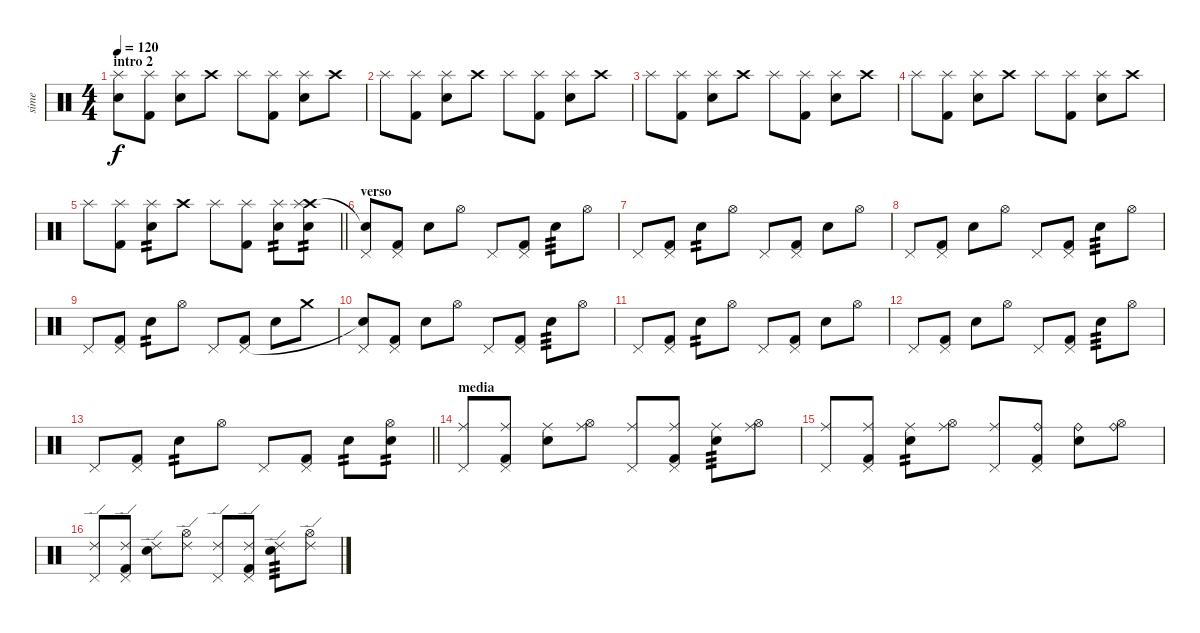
\track ("sime" "sime") {instrument percussion}
\staff {score}
\articulation defaults
\ts (4 4)
\section ("" "intro 2")
\tempo 120
\clef neutral
\ks c
("Splash (hit)" "Snare (hit)"{t}).8{dy f} ("Kick (hit) 2" "Splash (hit)").8 ("Snare (hit) 2" "Splash (hit)").8 "Crash high (hit)".8 "Splash (hit)".8 ("Kick (hit) 2" "Splash (hit)").8 ("Snare (hit) 2" "Splash (hit)").8 "Crash high (hit)".8 |
"Splash (hit)".8 ("Kick (hit) 2" "Splash (hit)").8 ("Snare (hit) 2" "Splash (hit)").8 "Crash high (hit)".8 "Splash (hit)".8 ("Kick (hit) 2" "Splash (hit)").8 ("Snare (hit) 2" "Splash (hit)").8 "Crash high (hit)".8 |
"Splash (hit)".8 ("Kick (hit) 2" "Splash (hit)").8 ("Snare (hit) 2" "Splash (hit)").8 "Crash high (hit)".8 "Splash (hit)".8 ("Kick (hit) 2" "Splash (hit)").8 ("Snare (hit) 2" "Splash (hit)").8 "Crash high (hit)".8 |
"Splash (hit)".8 ("Kick (hit) 2" "Splash (hit)").8 ("Snare (hit) 2" "Splash (hit)").8 "Crash high (hit)".8 "Splash (hit)".8 ("Kick (hit) 2" "Splash (hit)").8 ("Snare (hit) 2" "Splash (hit)").8 "Crash high (hit)".8 |
\barLineRight lightlight "Splash (hit)".8
("Kick (hit) 2" "Splash (hit)").8 ("Snare (hit) 2" "Splash (hit)").8{tp 2} "Crash high (hit)".8 "Splash (hit)".8 ("Kick (hit) 2" "Splash (hit)").8 ("Snare (hit) 2" "Splash (hit)").8{tp 2} ("Snare (hit) 2" "Crash high (hit)" "Splash (hit)").8{tp 2} |
\section ("" "verso")
("Pedal Hi-Hat (hit)" "Snare (hit)"{t}).8 ("Kick (hit) 2" "Pedal Hi-Hat (hit)").8 "Snare (hit) 2".8 "Hi-Hat (open)".8 "Pedal Hi-Hat (hit)".8 ("Kick (hit) 2" "Pedal Hi-Hat (hit)").8 "Snare (hit) 2".8{tp 3} "Hi-Hat (open)".8 |
"Pedal Hi-Hat (hit)".8 ("Kick (hit) 2" "Pedal Hi-Hat (hit)").8 "Snare (hit) 2".8{tp 2} "Hi-Hat (open)".8 "Pedal Hi-Hat (hit)".8 ("Kick (hit) 2" "Pedal Hi-Hat (hit)").8 "Snare (hit) 2".8 "Hi-Hat (open)".8 |
"Pedal Hi-Hat (hit)".8 ("Kick (hit) 2" "Pedal Hi-Hat (hit)").8 "Snare (hit) 2".8 "Hi-Hat (open)".8 "Pedal Hi-Hat (hit)".8 ("Kick (hit) 2" "Pedal Hi-Hat (hit)").8 "Snare (hit) 2".8{tp 3} "Hi-Hat (open)".8 |
"Pedal Hi-Hat (hit)".8 ("Kick (hit) 2" "Pedal Hi-Hat (hit)").8 "Snare (hit) 2".8{tp 2} "Hi-Hat (open)".8 "Pedal Hi-Hat (hit)".8 ("Kick (hit) 2" "Pedal Hi-Hat (hit)").8 "Snare (hit) 2".8 "Crash medium (hit)".8 |
("Pedal Hi-Hat (hit)" "Snare (hit)"{t}).8 ("Kick (hit) 2" "Pedal Hi-Hat (hit)").8 "Snare (hit) 2".8 "Hi-Hat (open)".8 "Pedal Hi-Hat (hit)".8 ("Kick (hit) 2" "Pedal Hi-Hat (hit)").8 "Snare (hit) 2".8{tp 3} "Hi-Hat (open)".8 |
"Pedal Hi-Hat (hit)".8 ("Kick (hit) 2" "Pedal Hi-Hat (hit)").8 "Snare (hit) 2".8{tp 2} "Hi-Hat (open)".8 "Pedal Hi-Hat (hit)".8 ("Kick (hit) 2" "Pedal Hi-Hat (hit)").8 "Snare (hit) 2".8 "Hi-Hat (open)".8 |
"Pedal Hi-Hat (hit)".8 ("Kick (hit) 2" "Pedal Hi-Hat (hit)").8 "Snare (hit) 2".8 "Hi-Hat (open)".8 "Pedal Hi-Hat (hit)".8 ("Kick (hit) 2" "Pedal Hi-Hat (hit)").8 "Snare (hit) 2".8{tp 3} "Hi-Hat (open)".8 |
\barLineRight lightlight "Pedal Hi-Hat (hit)".8
("Kick (hit) 2" "Pedal Hi-Hat (hit)").8 "Snare (hit) 2".8{tp 2} "Hi-Hat (open)".8 "Pedal Hi-Hat (hit)".8 ("Kick (hit) 2" "Pedal Hi-Hat (hit)").8 "Snare (hit) 2".8{tp 2} ("Snare (hit) 2" "Hi-Hat (open)").8{tp 2} |
\section ("" "media")
("Pedal Hi-Hat (hit)" "Ride (middle)").8 ("Kick (hit) 2" "Pedal Hi-Hat (hit)" "Ride (middle)").8 ("Snare (hit) 2" "Ride (middle)").8 ("Hi-Hat (open)" "Ride (middle)").8 ("Pedal Hi-Hat (hit)" "Ride (middle)").8 ("Kick (hit) 2" "Pedal Hi-Hat (hit)" "Ride (middle)").8 ("Snare (hit) 2" "Ride (middle)").8{tp 3} ("Hi-Hat (open)" "Ride (middle)").8 |
("Pedal Hi-Hat (hit)" "Ride (middle)").8 ("Kick (hit) 2" "Pedal Hi-Hat (hit)" "Ride (middle)").8 ("Snare (hit) 2" "Ride (middle)").8{tp 2} ("Hi-Hat (open)" "Ride (middle)").8 ("Pedal Hi-Hat (hit)" "Ride (middle)").8 ("Kick (hit) 2" "Pedal Hi-Hat (hit)" "Ride (bell)").8 ("Snare (hit) 2" "Ride (bell)").8 ("Hi-Hat (open)" "Ride (bell)").8 |
("Pedal Hi-Hat (hit)" "Ride (edge) 2").8 ("Kick (hit) 2" "Pedal Hi-Hat (hit)" "Ride (edge) 2").8 ("Snare (hit) 2" "Ride (edge) 2").8 ("Hi-Hat (open)" "Ride (edge) 2").8 ("Pedal Hi-Hat (hit)" "Ride (edge) 2").8 ("Kick (hit) 2" "Pedal Hi-Hat (hit)" "Ride (edge) 2").8 ("Snare (hit) 2" "Ride (edge) 2").8{tp 3} ("Hi-Hat (open)" "Ride (edge) 2").8
